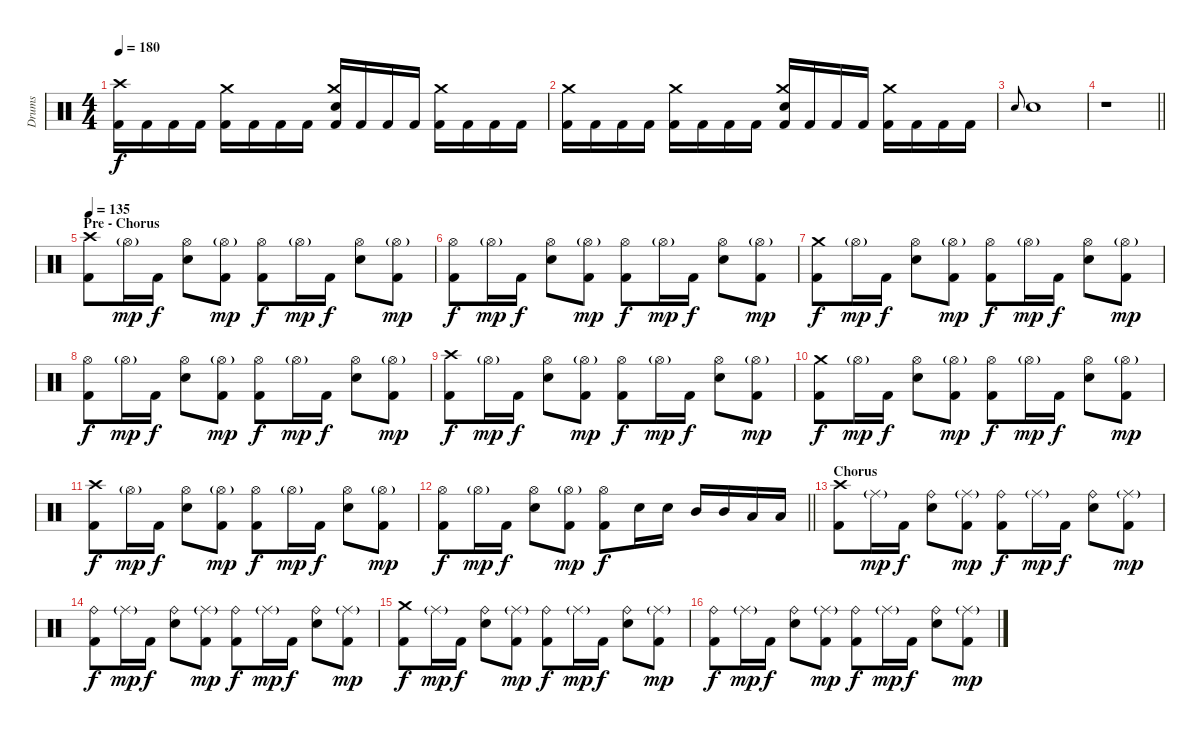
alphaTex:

\track ("Drums" "Drums") {instrument percussion}
\staff {score}
\articulation defaults
\ts (4 4)
\tempo 180
\clef neutral
\ks c
("Crash high (hit)" "Kick (hit) 2").16{dy f} "Kick (hit) 2".16 "Kick (hit) 2".16 "Kick (hit) 2".16 ("Crash medium (hit)" "Kick (hit) 2").16 "Kick (hit) 2".16 "Kick (hit) 2".16 "Kick (hit) 2".16 ("Crash medium (hit)" "Electric Snare (hit)" "Kick (hit) 2").16 "Kick (hit) 2".16 "Kick (hit) 2".16 "Kick (hit) 2".16 ("Crash medium (hit)" "Kick (hit) 2").16 "Kick (hit) 2".16 "Kick (hit) 2".16 "Kick (hit) 2".16 |
("Crash medium (hit)" "Kick (hit) 2").16 "Kick (hit) 2".16 "Kick (hit) 2".16 "Kick (hit) 2".16 ("Crash medium (hit)" "Kick (hit) 2").16 "Kick (hit) 2".16 "Kick (hit) 2".16 "Kick (hit) 2".16 ("Crash medium (hit)" "Electric Snare (hit)" "Kick (hit) 2").16 "Kick (hit) 2".16 "Kick (hit) 2".16 "Kick (hit) 2".16 ("Crash medium (hit)" "Kick (hit) 2").16 "Kick (hit) 2".16 "Kick (hit) 2".16 "Kick (hit) 2".16 |
"Electric Snare (hit)".8{gr onbeat} "Electric Snare (hit)".1 |
\barLineRight lightlight
r.1 |
\section ("" "Pre - Chorus")
\tempo 135
("Crash high (hit)" "Kick (hit) 2").8 "Hi-Hat (open)"{g}.16{dy mp} "Kick (hit) 2".16{dy f} ("Hi-Hat (open)" "Electric Snare (hit)").8 ("Hi-Hat (open)"{g} "Kick (hit) 2").8{dy mp} ("Hi-Hat (open)" "Kick (hit) 2").8{dy f} "Hi-Hat (open)"{g}.16{dy mp} "Kick (hit) 2".16{dy f} ("Hi-Hat (open)" "Electric Snare (hit)").8 ("Hi-Hat (open)"{g} "Kick (hit) 2").8{dy mp} |
("Hi-Hat (open)" "Kick (hit) 2").8{dy f} "Hi-Hat (open)"{g}.16{dy mp} "Kick (hit) 2".16{dy f} ("Hi-Hat (open)" "Electric Snare (hit)").8 ("Hi-Hat (open)"{g} "Kick (hit) 2").8{dy mp} ("Hi-Hat (open)" "Kick (hit) 2").8{dy f} "Hi-Hat (open)"{g}.16{dy mp} "Kick (hit) 2".16{dy f} ("Hi-Hat (open)" "Electric Snare (hit)").8 ("Hi-Hat (open)"{g} "Kick (hit) 2").8{dy mp} |
("Crash medium (hit)" "Kick (hit) 2").8{dy f} "Hi-Hat (open)"{g}.16{dy mp} "Kick (hit) 2".16{dy f} ("Hi-Hat (open)" "Electric Snare (hit)").8 ("Hi-Hat (open)"{g} "Kick (hit) 2").8{dy mp} ("Hi-Hat (open)" "Kick (hit) 2").8{dy f} "Hi-Hat (open)"{g}.16{dy mp} "Kick (hit) 2".16{dy f} ("Hi-Hat (open)" "Electric Snare (hit)").8 ("Hi-Hat (open)"{g} "Kick (hit) 2").8{dy mp} |
("Hi-Hat (open)" "Kick (hit) 2").8{dy f} "Hi-Hat (open)"{g}.16{dy mp} "Kick (hit) 2".16{dy f} ("Hi-Hat (open)" "Electric Snare (hit)").8 ("Hi-Hat (open)"{g} "Kick (hit) 2").8{dy mp} ("Hi-Hat (open)" "Kick (hit) 2").8{dy f} "Hi-Hat (open)"{g}.16{dy mp} "Kick (hit) 2".16{dy f} ("Hi-Hat (open)" "Electric Snare (hit)").8 ("Hi-Hat (open)"{g} "Kick (hit) 2").8{dy mp} |
("Crash high (hit)" "Kick (hit) 2").8{dy f} "Hi-Hat (open)"{g}.16{dy mp} "Kick (hit) 2".16{dy f} ("Hi-Hat (open)" "Electric Snare (hit)").8 ("Hi-Hat (open)"{g} "Kick (hit) 2").8{dy mp} ("Hi-Hat (open)" "Kick (hit) 2").8{dy f} "Hi-Hat (open)"{g}.16{dy mp} "Kick (hit) 2".16{dy f} ("Hi-Hat (open)" "Electric Snare (hit)").8 ("Hi-Hat (open)"{g} "Kick (hit) 2").8{dy mp} |
("Crash medium (hit)" "Kick (hit) 2").8{dy f} "Hi-Hat (open)"{g}.16{dy mp} "Kick (hit) 2".16{dy f} ("Hi-Hat (open)" "Electric Snare (hit)").8 ("Hi-Hat (open)"{g} "Kick (hit) 2").8{dy mp} ("Hi-Hat (open)" "Kick (hit) 2").8{dy f} "Hi-Hat (open)"{g}.16{dy mp} "Kick (hit) 2".16{dy f} ("Hi-Hat (open)" "Electric Snare (hit)").8 ("Hi-Hat (open)"{g} "Kick (hit) 2").8{dy mp} |
("Crash high (hit)" "Kick (hit) 2").8{dy f} "Hi-Hat (open)"{g}.16{dy mp} "Kick (hit) 2".16{dy f} ("Hi-Hat (open)" "Electric Snare (hit)").8 ("Hi-Hat (open)"{g} "Kick (hit) 2").8{dy mp} ("Hi-Hat (open)" "Kick (hit) 2").8{dy f} "Hi-Hat (open)"{g}.16{dy mp} "Kick (hit) 2".16{dy f} ("Hi-Hat (open)" "Electric Snare (hit)").8 ("Hi-Hat (open)"{g} "Kick (hit) 2").8{dy mp} |
\barLineRight lightlight
("Hi-Hat (open)" "Kick (hit) 2").8{dy f} "Hi-Hat (open)"{g}.16{dy mp} "Kick (hit) 2".16{dy f} ("Hi-Hat (open)" "Electric Snare (hit)").8 ("Hi-Hat (open)"{g} "Kick (hit) 2").8{dy mp} ("Hi-Hat (open)" "Kick (hit) 2").8{dy f} "Electric Snare (hit)".16 "Electric Snare (hit)".16 "Mid Tom (hit)".16 "Mid Tom (hit)".16 "Low Tom (hit)".16 "Low Tom (hit)".16 |
\section ("" "Chorus")
("Crash high (hit)" "Kick (hit) 2").8 "Ride (middle)"{g}.16{dy mp} "Kick (hit) 2".16{dy f} ("Ride (bell)" "Electric Snare (hit)").8 ("Ride (middle)"{g} "Kick (hit) 2").8{dy mp} ("Ride (bell)" "Kick (hit) 2").8{dy f} "Ride (middle)"{g}.16{dy mp} "Kick (hit) 2".16{dy f} ("Ride (bell)" "Electric Snare (hit)").8 ("Ride (middle)"{g} "Kick (hit) 2").8{dy mp} |
("Ride (bell)" "Kick (hit) 2").8{dy f} "Ride (middle)"{g}.16{dy mp} "Kick (hit) 2".16{dy f} ("Ride (bell)" "Electric Snare (hit)").8 ("Ride (middle)"{g} "Kick (hit) 2").8{dy mp} ("Ride (bell)" "Kick (hit) 2").8{dy f} "Ride (middle)"{g}.16{dy mp} "Kick (hit) 2".16{dy f} ("Ride (bell)" "Electric Snare (hit)").8 ("Ride (middle)"{g} "Kick (hit) 2").8{dy mp} |
("Crash medium (hit)" "Kick (hit) 2").8{dy f} "Ride (middle)"{g}.16{dy mp} "Kick (hit) 2".16{dy f} ("Ride (bell)" "Electric Snare (hit)").8 ("Ride (middle)"{g} "Kick (hit) 2").8{dy mp} ("Ride (bell)" "Kick (hit) 2").8{dy f} "Ride (middle)"{g}.16{dy mp} "Kick (hit) 2".16{dy f} ("Ride (bell)" "Electric Snare (hit)").8 ("Ride (middle)"{g} "Kick (hit) 2").8{dy mp} |
("Ride (bell)" "Kick (hit) 2").8{dy f} "Ride (middle)"{g}.16{dy mp} "Kick (hit) 2".16{dy f} ("Ride (bell)" "Electric Snare (hit)").8 ("Ride (middle)"{g} "Kick (hit) 2").8{dy mp} ("Ride (bell)" "Kick (hit) 2").8{dy f} "Ride (middle)"{g}.16{dy mp} "Kick (hit) 2".16{dy f} ("Ride (bell)" "Electric Snare (hit)").8 ("Ride (middle)"{g} "Kick (hit) 2").8{dy mp}
